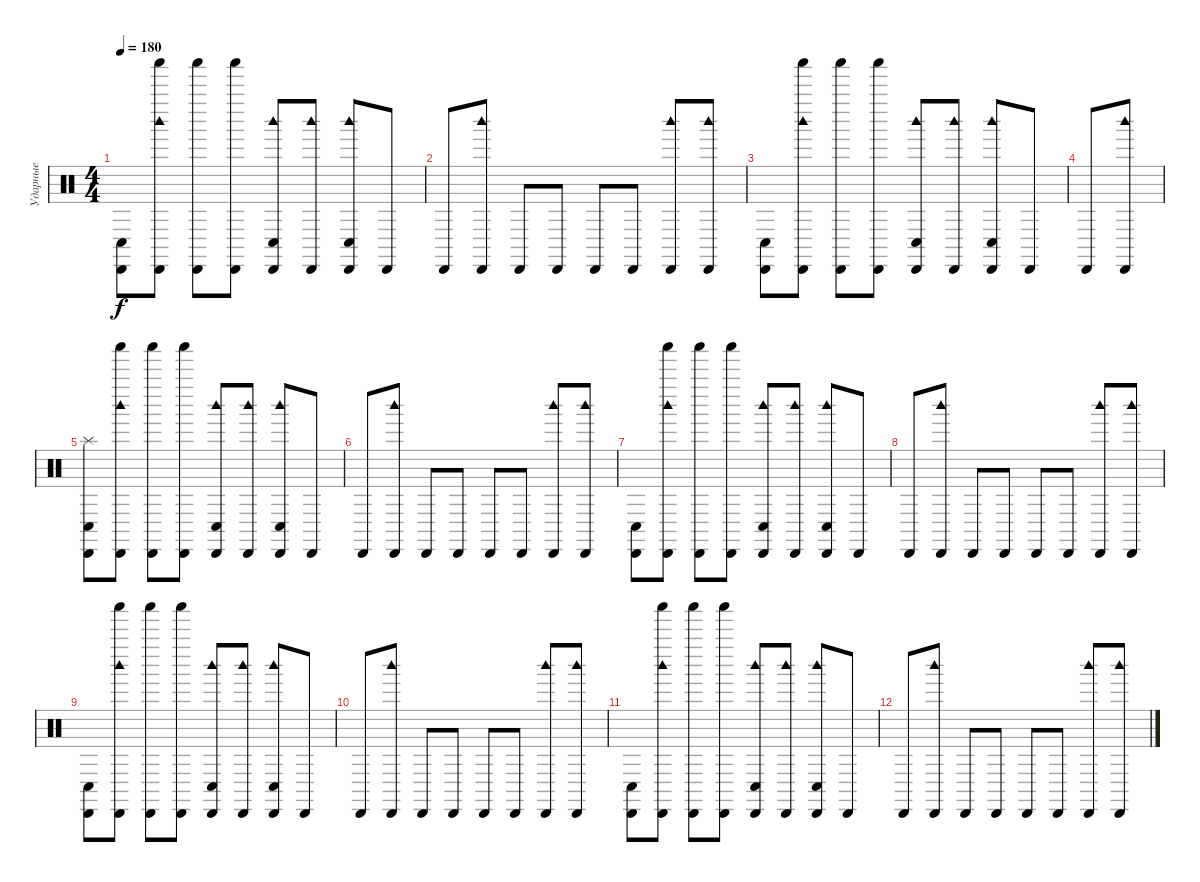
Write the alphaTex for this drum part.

\track ("Ударные" "Ударные") {instrument percussion}
\staff {score}
\articulation defaults
\ts (4 4)
\tempo 180
\clef neutral
\ks c
("Cabasa (hit)" "Conga low (hit)").8{dy f} ("Woodblock high (hit)" "Shaker (hit)" "Cabasa (hit)").8 ("Shaker (hit)" "Cabasa (hit)").8 ("Shaker (hit)" "Cabasa (hit)").8 ("Woodblock high (hit)" "Cabasa (hit)" "Conga low (hit)").8 ("Woodblock high (hit)" "Cabasa (hit)").8 ("Woodblock high (hit)" "Cabasa (hit)" "Conga low (hit)").8 "Cabasa (hit)".8 |
"Cabasa (hit)".8 ("Woodblock high (hit)" "Cabasa (hit)").8 "Cabasa (hit)".8 "Cabasa (hit)".8 "Cabasa (hit)".8 "Cabasa (hit)".8 ("Woodblock high (hit)" "Cabasa (hit)").8 ("Woodblock high (hit)" "Cabasa (hit)").8 |
("Cabasa (hit)" "Conga low (hit)").8 ("Woodblock high (hit)" "Shaker (hit)" "Cabasa (hit)").8 ("Shaker (hit)" "Cabasa (hit)").8 ("Shaker (hit)" "Cabasa (hit)").8 ("Woodblock high (hit)" "Cabasa (hit)" "Conga low (hit)").8 ("Woodblock high (hit)" "Cabasa (hit)").8 ("Woodblock high (hit)" "Cabasa (hit)" "Conga low (hit)").8 "Cabasa (hit)".8 |
"Cabasa (hit)".8 ("Woodblock high (hit)" "Cabasa (hit)").8 |
("Cabasa (hit)" "Splash (hit)" "Conga low (hit)").8 ("Woodblock high (hit)" "Shaker (hit)" "Cabasa (hit)").8 ("Shaker (hit)" "Cabasa (hit)").8 ("Shaker (hit)" "Cabasa (hit)").8 ("Woodblock high (hit)" "Cabasa (hit)" "Conga low (hit)").8 ("Woodblock high (hit)" "Cabasa (hit)").8 ("Woodblock high (hit)" "Cabasa (hit)" "Conga low (hit)").8 "Cabasa (hit)".8 |
"Cabasa (hit)".8 ("Woodblock high (hit)" "Cabasa (hit)").8 "Cabasa (hit)".8 "Cabasa (hit)".8 "Cabasa (hit)".8 "Cabasa (hit)".8 ("Woodblock high (hit)" "Cabasa (hit)").8 ("Woodblock high (hit)" "Cabasa (hit)").8 |
("Cabasa (hit)" "Conga low (hit)").8 ("Woodblock high (hit)" "Shaker (hit)" "Cabasa (hit)").8 ("Shaker (hit)" "Cabasa (hit)").8 ("Shaker (hit)" "Cabasa (hit)").8 ("Woodblock high (hit)" "Cabasa (hit)" "Conga low (hit)").8 ("Woodblock high (hit)" "Cabasa (hit)").8 ("Woodblock high (hit)" "Cabasa (hit)" "Conga low (hit)").8 "Cabasa (hit)".8 |
"Cabasa (hit)".8 ("Woodblock high (hit)" "Cabasa (hit)").8 "Cabasa (hit)".8 "Cabasa (hit)".8 "Cabasa (hit)".8 "Cabasa (hit)".8 ("Woodblock high (hit)" "Cabasa (hit)").8 ("Woodblock high (hit)" "Cabasa (hit)").8 |
("Cabasa (hit)" "Conga low (hit)").8 ("Woodblock high (hit)" "Shaker (hit)" "Cabasa (hit)").8 ("Shaker (hit)" "Cabasa (hit)").8 ("Shaker (hit)" "Cabasa (hit)").8 ("Woodblock high (hit)" "Cabasa (hit)" "Conga low (hit)").8 ("Woodblock high (hit)" "Cabasa (hit)").8 ("Woodblock high (hit)" "Cabasa (hit)" "Conga low (hit)").8 "Cabasa (hit)".8 |
"Cabasa (hit)".8 ("Woodblock high (hit)" "Cabasa (hit)").8 "Cabasa (hit)".8 "Cabasa (hit)".8 "Cabasa (hit)".8 "Cabasa (hit)".8 ("Woodblock high (hit)" "Cabasa (hit)").8 ("Woodblock high (hit)" "Cabasa (hit)").8 |
("Cabasa (hit)" "Conga low (hit)").8 ("Woodblock high (hit)" "Shaker (hit)" "Cabasa (hit)").8 ("Shaker (hit)" "Cabasa (hit)").8 ("Shaker (hit)" "Cabasa (hit)").8 ("Woodblock high (hit)" "Cabasa (hit)" "Conga low (hit)").8 ("Woodblock high (hit)" "Cabasa (hit)").8 ("Woodblock high (hit)" "Cabasa (hit)" "Conga low (hit)").8 "Cabasa (hit)".8 |
"Cabasa (hit)".8 ("Woodblock high (hit)" "Cabasa (hit)").8 "Cabasa (hit)".8 "Cabasa (hit)".8 "Cabasa (hit)".8 "Cabasa (hit)".8 ("Woodblock high (hit)" "Cabasa (hit)").8 ("Woodblock high (hit)" "Cabasa (hit)").8
